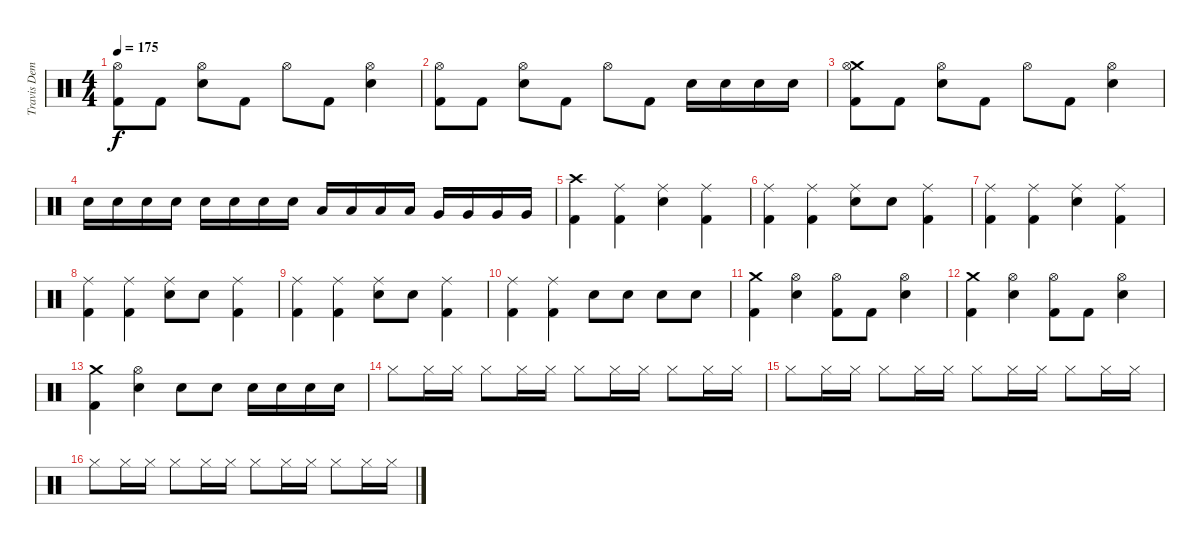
\track ("Travis Dempsey" "Travis Dem") {instrument percussion}
\staff {score}
\articulation defaults
\ts (4 4)
\tempo 175
\clef neutral
\ks c
("Hi-Hat (open)" "Kick (hit) 2").8{dy f} "Kick (hit) 2".8 ("Hi-Hat (open)" "Electric Snare (hit)").8 "Kick (hit) 2".8 "Hi-Hat (open)".8 "Kick (hit) 2".8 ("Hi-Hat (open)" "Electric Snare (hit)").4 |
("Hi-Hat (open)" "Kick (hit) 2").8 "Kick (hit) 2".8 ("Hi-Hat (open)" "Electric Snare (hit)").8 "Kick (hit) 2".8 "Hi-Hat (open)".8 "Kick (hit) 2".8 "Electric Snare (hit)".16 "Electric Snare (hit)".16 "Electric Snare (hit)".16 "Electric Snare (hit)".16 |
("Crash medium (hit)" "Hi-Hat (open)" "Kick (hit) 2").8 "Kick (hit) 2".8 ("Hi-Hat (open)" "Electric Snare (hit)").8 "Kick (hit) 2".8 "Hi-Hat (open)".8 "Kick (hit) 2".8 ("Hi-Hat (open)" "Electric Snare (hit)").4 |
"Electric Snare (hit)".16 "Electric Snare (hit)".16 "Electric Snare (hit)".16 "Electric Snare (hit)".16 "Electric Snare (hit)".16 "Electric Snare (hit)".16 "Electric Snare (hit)".16 "Electric Snare (hit)".16 "Low Tom (hit)".16 "Low Tom (hit)".16 "Low Tom (hit)".16 "Low Tom (hit)".16 "Very Low Tom (hit)".16 "Very Low Tom (hit)".16 "Very Low Tom (hit)".16 "Very Low Tom (hit)".16 |
("Crash high (hit)" "Kick (hit) 2").4 ("Ride (middle)" "Kick (hit) 2").4 ("Ride (middle)" "Electric Snare (hit)").4 ("Ride (middle)" "Kick (hit) 2").4 |
("Ride (middle)" "Kick (hit) 2").4 ("Ride (middle)" "Kick (hit) 2").4 ("Ride (middle)" "Electric Snare (hit)").8 "Electric Snare (hit)".8 ("Ride (middle)" "Kick (hit) 2").4 |
("Ride (middle)" "Kick (hit) 2").4 ("Ride (middle)" "Kick (hit) 2").4 ("Ride (middle)" "Electric Snare (hit)").4 ("Ride (middle)" "Kick (hit) 2").4 |
("Ride (middle)" "Kick (hit) 2").4 ("Ride (middle)" "Kick (hit) 2").4 ("Ride (middle)" "Electric Snare (hit)").8 "Electric Snare (hit)".8 ("Ride (middle)" "Kick (hit) 2").4 |
("Ride (middle)" "Kick (hit) 2").4 ("Ride (middle)" "Kick (hit) 2").4 ("Ride (middle)" "Electric Snare (hit)").8 "Electric Snare (hit)".8 ("Ride (middle)" "Kick (hit) 2").4 |
("Ride (middle)" "Kick (hit) 2").4 ("Ride (middle)" "Kick (hit) 2").4 "Electric Snare (hit)".8 "Electric Snare (hit)".8 "Electric Snare (hit)".8 "Electric Snare (hit)".8 |
("Crash medium (hit)" "Kick (hit) 2").4 ("Hi-Hat (open)" "Electric Snare (hit)").4 ("Hi-Hat (open)" "Kick (hit) 2").8 "Kick (hit) 2".8 ("Hi-Hat (open)" "Electric Snare (hit)").4 |
("Crash medium (hit)" "Kick (hit) 2").4 ("Hi-Hat (open)" "Electric Snare (hit)").4 ("Hi-Hat (open)" "Kick (hit) 2").8 "Kick (hit) 2".8 ("Hi-Hat (open)" "Electric Snare (hit)").4 |
("Crash medium (hit)" "Kick (hit) 2").4 ("Hi-Hat (open)" "Electric Snare (hit)").4 "Electric Snare (hit)".8 "Electric Snare (hit)".8 "Electric Snare (hit)".16 "Electric Snare (hit)".16 "Electric Snare (hit)".16 "Electric Snare (hit)".16 |
"Hi-Hat (closed)".8 "Hi-Hat (closed)".16 "Hi-Hat (closed)".16 "Hi-Hat (closed)".8 "Hi-Hat (closed)".16 "Hi-Hat (closed)".16 "Hi-Hat (closed)".8 "Hi-Hat (closed)".16 "Hi-Hat (closed)".16 "Hi-Hat (closed)".8 "Hi-Hat (closed)".16 "Hi-Hat (closed)".16 |
"Hi-Hat (closed)".8 "Hi-Hat (closed)".16 "Hi-Hat (closed)".16 "Hi-Hat (closed)".8 "Hi-Hat (closed)".16 "Hi-Hat (closed)".16 "Hi-Hat (closed)".8 "Hi-Hat (closed)".16 "Hi-Hat (closed)".16 "Hi-Hat (closed)".8 "Hi-Hat (closed)".16 "Hi-Hat (closed)".16 |
"Hi-Hat (closed)".8 "Hi-Hat (closed)".16 "Hi-Hat (closed)".16 "Hi-Hat (closed)".8 "Hi-Hat (closed)".16 "Hi-Hat (closed)".16 "Hi-Hat (closed)".8 "Hi-Hat (closed)".16 "Hi-Hat (closed)".16 "Hi-Hat (closed)".8 "Hi-Hat (closed)".16 "Hi-Hat (closed)".16
